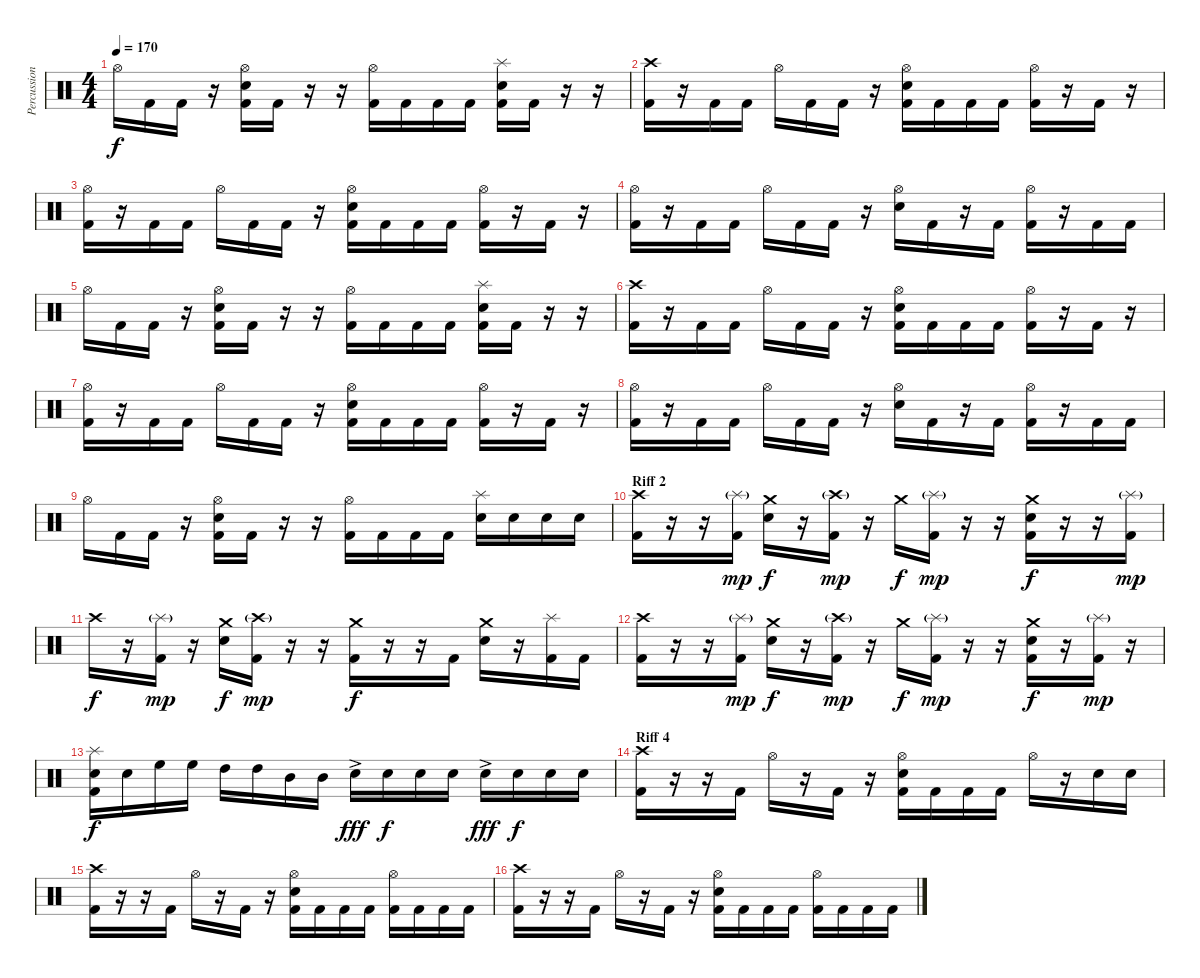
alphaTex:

\track ("Percussion" "Percussion") {instrument percussion}
\staff {score}
\articulation defaults
\ts (4 4)
\tempo 170
\clef neutral
\ks c "Hi-Hat (open)".16{dy f} "Kick (hit) 2".16 "Kick (hit) 2".16
r.16 ("Hi-Hat (open)" "Electric Snare (hit)" "Kick (hit) 2").16 "Kick (hit) 2".16 r.16 r.16 ("Hi-Hat (open)" "Kick (hit) 2").16 "Kick (hit) 2".16 "Kick (hit) 2".16 "Kick (hit) 2".16 ("Splash (hit)" "Electric Snare (hit)" "Kick (hit) 2").16 "Kick (hit) 2".16 r.16 r.16 |
("Crash high (hit)" "Kick (hit) 2").16 r.16 "Kick (hit) 2".16 "Kick (hit) 2".16 "Hi-Hat (open)".16 "Kick (hit) 2".16 "Kick (hit) 2".16 r.16 ("Hi-Hat (open)" "Electric Snare (hit)" "Kick (hit) 2").16 "Kick (hit) 2".16 "Kick (hit) 2".16 "Kick (hit) 2".16 ("Hi-Hat (open)" "Kick (hit) 2").16 r.16 "Kick (hit) 2".16 r.16 |
("Hi-Hat (open)" "Kick (hit) 2").16 r.16 "Kick (hit) 2".16 "Kick (hit) 2".16 "Hi-Hat (open)".16 "Kick (hit) 2".16 "Kick (hit) 2".16 r.16 ("Hi-Hat (open)" "Electric Snare (hit)" "Kick (hit) 2").16 "Kick (hit) 2".16 "Kick (hit) 2".16 "Kick (hit) 2".16 ("Hi-Hat (open)" "Kick (hit) 2").16 r.16 "Kick (hit) 2".16 r.16 |
("Hi-Hat (open)" "Kick (hit) 2").16 r.16 "Kick (hit) 2".16 "Kick (hit) 2".16 "Hi-Hat (open)".16 "Kick (hit) 2".16 "Kick (hit) 2".16 r.16 ("Hi-Hat (open)" "Electric Snare (hit)").16 "Kick (hit) 2".16 r.16 "Kick (hit) 2".16 ("Hi-Hat (open)" "Kick (hit) 2").16 r.16 "Kick (hit) 2".16 "Kick (hit) 2".16 |
"Hi-Hat (open)".16 "Kick (hit) 2".16 "Kick (hit) 2".16 r.16 ("Hi-Hat (open)" "Electric Snare (hit)" "Kick (hit) 2").16 "Kick (hit) 2".16 r.16 r.16 ("Hi-Hat (open)" "Kick (hit) 2").16 "Kick (hit) 2".16 "Kick (hit) 2".16 "Kick (hit) 2".16 ("Splash (hit)" "Electric Snare (hit)" "Kick (hit) 2").16 "Kick (hit) 2".16 r.16 r.16 |
("Crash high (hit)" "Kick (hit) 2").16 r.16 "Kick (hit) 2".16 "Kick (hit) 2".16 "Hi-Hat (open)".16 "Kick (hit) 2".16 "Kick (hit) 2".16 r.16 ("Hi-Hat (open)" "Electric Snare (hit)" "Kick (hit) 2").16 "Kick (hit) 2".16 "Kick (hit) 2".16 "Kick (hit) 2".16 ("Hi-Hat (open)" "Kick (hit) 2").16 r.16 "Kick (hit) 2".16 r.16 |
("Hi-Hat (open)" "Kick (hit) 2").16 r.16 "Kick (hit) 2".16 "Kick (hit) 2".16 "Hi-Hat (open)".16 "Kick (hit) 2".16 "Kick (hit) 2".16 r.16 ("Hi-Hat (open)" "Electric Snare (hit)" "Kick (hit) 2").16 "Kick (hit) 2".16 "Kick (hit) 2".16 "Kick (hit) 2".16 ("Hi-Hat (open)" "Kick (hit) 2").16 r.16 "Kick (hit) 2".16 r.16 |
("Hi-Hat (open)" "Kick (hit) 2").16 r.16 "Kick (hit) 2".16 "Kick (hit) 2".16 "Hi-Hat (open)".16 "Kick (hit) 2".16 "Kick (hit) 2".16 r.16 ("Hi-Hat (open)" "Electric Snare (hit)").16 "Kick (hit) 2".16 r.16 "Kick (hit) 2".16 ("Hi-Hat (open)" "Kick (hit) 2").16 r.16 "Kick (hit) 2".16 "Kick (hit) 2".16 |
"Hi-Hat (open)".16 "Kick (hit) 2".16 "Kick (hit) 2".16 r.16 ("Hi-Hat (open)" "Electric Snare (hit)" "Kick (hit) 2").16 "Kick (hit) 2".16 r.16 r.16 ("Hi-Hat (open)" "Kick (hit) 2").16 "Kick (hit) 2".16 "Kick (hit) 2".16 "Kick (hit) 2".16 ("Splash (hit)" "Electric Snare (hit)").16 "Electric Snare (hit)".16 "Electric Snare (hit)".16 "Electric Snare (hit)".16 |
\section ("" "Riff 2")
("Crash high (hit)" "Kick (hit) 2").16 r.16 r.16 ("Splash (hit)"{g} "Kick (hit) 2").16{dy mp} ("Crash medium (hit)" "Electric Snare (hit)").16{dy f} r.16 ("Crash high (hit)"{g} "Kick (hit) 2").16{dy mp} r.16 "Crash medium (hit)".16{dy f} ("Splash (hit)"{g} "Kick (hit) 2").16{dy mp} r.16 r.16 ("Crash medium (hit)" "Electric Snare (hit)" "Kick (hit) 2").16{dy f} r.16 r.16 ("Splash (hit)"{g} "Kick (hit) 2").16{dy mp} |
"Crash high (hit)".16{dy f} r.16 ("Splash (hit)"{g} "Kick (hit) 2").16{dy mp} r.16 ("Crash medium (hit)" "Electric Snare (hit)").16{dy f} ("Crash high (hit)"{g} "Kick (hit) 2").16{dy mp} r.16 r.16 ("Crash medium (hit)" "Kick (hit) 2").16{dy f} r.16 r.16 "Kick (hit) 2".16 ("Crash medium (hit)" "Electric Snare (hit)").16 r.16 ("Splash (hit)" "Kick (hit) 2").16 "Kick (hit) 2".16 |
("Crash high (hit)" "Kick (hit) 2").16 r.16 r.16 ("Splash (hit)"{g} "Kick (hit) 2").16{dy mp} ("Crash medium (hit)" "Electric Snare (hit)").16{dy f} r.16 ("Crash high (hit)"{g} "Kick (hit) 2").16{dy mp} r.16 "Crash medium (hit)".16{dy f} ("Splash (hit)"{g} "Kick (hit) 2").16{dy mp} r.16 r.16 ("Crash medium (hit)" "Electric Snare (hit)" "Kick (hit) 2").16{dy f} r.16 ("Splash (hit)"{g} "Kick (hit) 2").16{dy mp} r.16 |
("Splash (hit)" "Electric Snare (hit)" "Kick (hit) 2").16{dy f} "Electric Snare (hit)".16 "High Floor Tom (hit)".16 "High Floor Tom (hit)".16 "High Tom (hit)".16 "High Tom (hit)".16 "Mid Tom (hit)".16 "Mid Tom (hit)".16 "Electric Snare (hit)"{ac}.16{dy fff} "Electric Snare (hit)".16{dy f} "Electric Snare (hit)".16 "Electric Snare (hit)".16 "Electric Snare (hit)"{ac}.16{dy fff} "Electric Snare (hit)".16{dy f} "Electric Snare (hit)".16 "Electric Snare (hit)".16 |
\section ("" "Riff 4")
("Crash high (hit)" "Kick (hit) 2").16 r.16 r.16 "Kick (hit) 2".16 "Hi-Hat (open)".16 r.16 "Kick (hit) 2".16 r.16 ("Hi-Hat (open)" "Electric Snare (hit)" "Kick (hit) 2").16 "Kick (hit) 2".16 "Kick (hit) 2".16 "Kick (hit) 2".16 "Hi-Hat (open)".16 r.16 "Electric Snare (hit)".16 "Electric Snare (hit)".16 |
("Crash high (hit)" "Kick (hit) 2").16 r.16 r.16 "Kick (hit) 2".16 "Hi-Hat (open)".16 r.16 "Kick (hit) 2".16 r.16 ("Hi-Hat (open)" "Electric Snare (hit)" "Kick (hit) 2").16 "Kick (hit) 2".16 "Kick (hit) 2".16 "Kick (hit) 2".16 ("Hi-Hat (open)" "Kick (hit) 2").16 "Kick (hit) 2".16 "Kick (hit) 2".16 "Kick (hit) 2".16 |
("Crash high (hit)" "Kick (hit) 2").16 r.16 r.16 "Kick (hit) 2".16 "Hi-Hat (open)".16 r.16 "Kick (hit) 2".16 r.16 ("Hi-Hat (open)" "Electric Snare (hit)" "Kick (hit) 2").16 "Kick (hit) 2".16 "Kick (hit) 2".16 "Kick (hit) 2".16 ("Hi-Hat (open)" "Kick (hit) 2").16 "Kick (hit) 2".16 "Kick (hit) 2".16 "Kick (hit) 2".16
